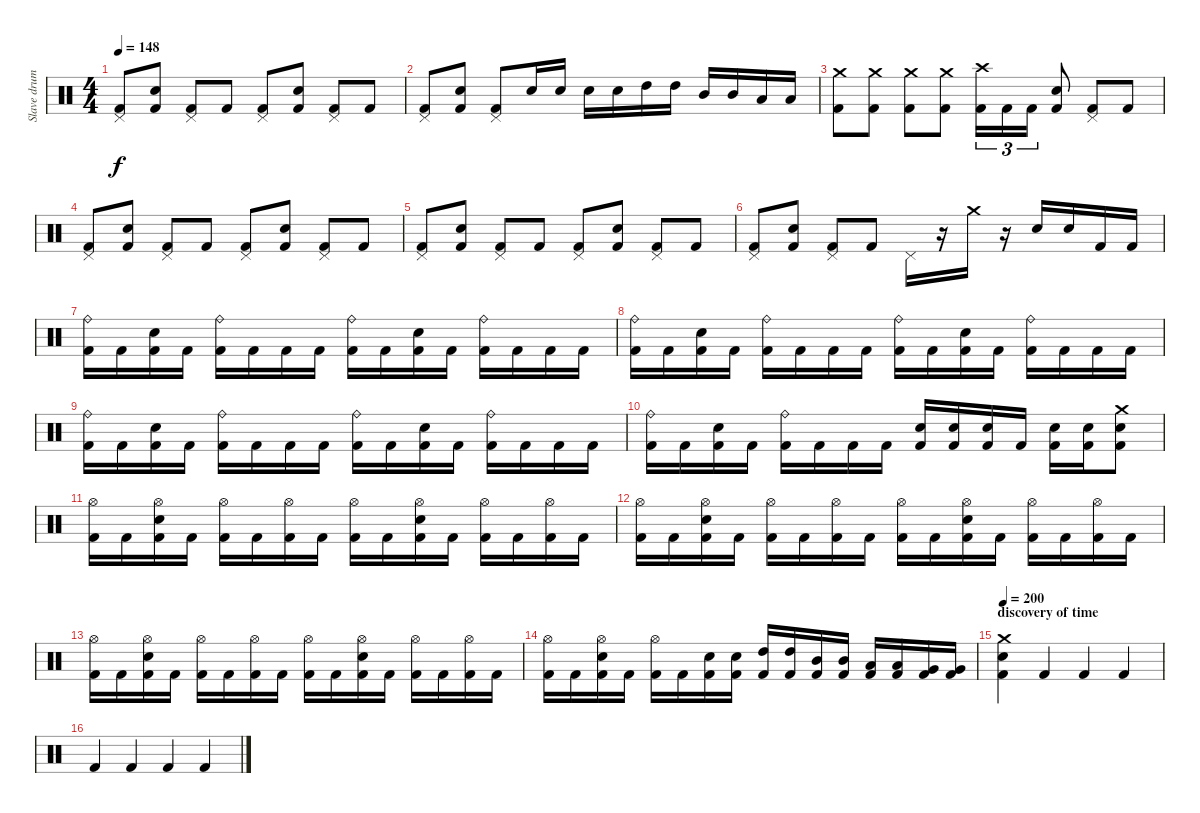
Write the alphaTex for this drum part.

\track ("Slave drum" "Slave drum") {instrument percussion}
\staff {score}
\articulation defaults
\ts (4 4)
\tempo 148
\clef neutral
\ks c
("Pedal Hi-Hat (hit)" "Kick (hit) 2").8{dy f} ("Electric Snare (hit)" "Kick (hit) 2").8 ("Pedal Hi-Hat (hit)" "Kick (hit) 2").8 "Kick (hit) 2".8 ("Pedal Hi-Hat (hit)" "Kick (hit) 2").8 ("Electric Snare (hit)" "Kick (hit) 2").8 ("Pedal Hi-Hat (hit)" "Kick (hit) 2").8 "Kick (hit) 2".8 |
("Pedal Hi-Hat (hit)" "Kick (hit) 2").8 ("Electric Snare (hit)" "Kick (hit) 2").8 ("Pedal Hi-Hat (hit)" "Kick (hit) 2").8 "Electric Snare (hit)".16 "Electric Snare (hit)".16 "Electric Snare (hit)".16 "Electric Snare (hit)".16 "High Tom (hit)".16 "High Tom (hit)".16 "Mid Tom (hit)".16 "Mid Tom (hit)".16 "Low Tom (hit)".16 "Low Tom (hit)".16 |
("Crash medium (hit)" "Kick (hit) 2").8 ("Crash medium (hit)" "Kick (hit) 2").8 ("Crash medium (hit)" "Kick (hit) 2").8 ("Crash medium (hit)" "Kick (hit) 2").8 ("Crash high (hit)" "Kick (hit) 2").16{tu (3 2)} "Kick (hit) 2".16{tu (3 2)} "Kick (hit) 2".16{tu (3 2)} ("Electric Snare (hit)" "Kick (hit) 2").8 ("Pedal Hi-Hat (hit)" "Kick (hit) 2").8 "Kick (hit) 2".8 |
("Pedal Hi-Hat (hit)" "Kick (hit) 2").8 ("Electric Snare (hit)" "Kick (hit) 2").8 ("Pedal Hi-Hat (hit)" "Kick (hit) 2").8 "Kick (hit) 2".8 ("Pedal Hi-Hat (hit)" "Kick (hit) 2").8 ("Electric Snare (hit)" "Kick (hit) 2").8 ("Pedal Hi-Hat (hit)" "Kick (hit) 2").8 "Kick (hit) 2".8 |
("Pedal Hi-Hat (hit)" "Kick (hit) 2").8 ("Electric Snare (hit)" "Kick (hit) 2").8 ("Pedal Hi-Hat (hit)" "Kick (hit) 2").8 "Kick (hit) 2".8 ("Pedal Hi-Hat (hit)" "Kick (hit) 2").8 ("Electric Snare (hit)" "Kick (hit) 2").8 ("Pedal Hi-Hat (hit)" "Kick (hit) 2").8 "Kick (hit) 2".8 |
("Pedal Hi-Hat (hit)" "Kick (hit) 2").8 ("Electric Snare (hit)" "Kick (hit) 2").8 ("Pedal Hi-Hat (hit)" "Kick (hit) 2").8 "Kick (hit) 2".8 "Pedal Hi-Hat (hit)".16 r.16 "Crash medium (hit)".16 r.16 "Electric Snare (hit)".16 "Electric Snare (hit)".16 "Kick (hit) 2".16 "Kick (hit) 2".16 |
("Ride (bell)" "Kick (hit) 2").16 "Kick (hit) 2".16 ("Electric Snare (hit)" "Kick (hit) 2").16 "Kick (hit) 2".16 ("Ride (bell)" "Kick (hit) 2").16 "Kick (hit) 2".16 "Kick (hit) 2".16 "Kick (hit) 2".16 ("Ride (bell)" "Kick (hit) 2").16 "Kick (hit) 2".16 ("Electric Snare (hit)" "Kick (hit) 2").16 "Kick (hit) 2".16 ("Ride (bell)" "Kick (hit) 2").16 "Kick (hit) 2".16 "Kick (hit) 2".16 "Kick (hit) 2".16 |
("Ride (bell)" "Kick (hit) 2").16 "Kick (hit) 2".16 ("Electric Snare (hit)" "Kick (hit) 2").16 "Kick (hit) 2".16 ("Ride (bell)" "Kick (hit) 2").16 "Kick (hit) 2".16 "Kick (hit) 2".16 "Kick (hit) 2".16 ("Ride (bell)" "Kick (hit) 2").16 "Kick (hit) 2".16 ("Electric Snare (hit)" "Kick (hit) 2").16 "Kick (hit) 2".16 ("Ride (bell)" "Kick (hit) 2").16 "Kick (hit) 2".16 "Kick (hit) 2".16 "Kick (hit) 2".16 |
("Ride (bell)" "Kick (hit) 2").16 "Kick (hit) 2".16 ("Electric Snare (hit)" "Kick (hit) 2").16 "Kick (hit) 2".16 ("Ride (bell)" "Kick (hit) 2").16 "Kick (hit) 2".16 "Kick (hit) 2".16 "Kick (hit) 2".16 ("Ride (bell)" "Kick (hit) 2").16 "Kick (hit) 2".16 ("Electric Snare (hit)" "Kick (hit) 2").16 "Kick (hit) 2".16 ("Ride (bell)" "Kick (hit) 2").16 "Kick (hit) 2".16 "Kick (hit) 2".16 "Kick (hit) 2".16 |
("Ride (bell)" "Kick (hit) 2").16 "Kick (hit) 2".16 ("Electric Snare (hit)" "Kick (hit) 2").16 "Kick (hit) 2".16 ("Ride (bell)" "Kick (hit) 2").16 "Kick (hit) 2".16 "Kick (hit) 2".16 "Kick (hit) 2".16 ("Electric Snare (hit)" "Kick (hit) 2").16 ("Electric Snare (hit)" "Kick (hit) 2").16 ("Electric Snare (hit)" "Kick (hit) 2").16 "Kick (hit) 2".16 ("Electric Snare (hit)" "Kick (hit) 2").16 ("Electric Snare (hit)" "Kick (hit) 2").16 ("Crash medium (hit)" "Electric Snare (hit)" "Kick (hit) 2").8 |
("Hi-Hat (open)" "Kick (hit) 2").16 "Kick (hit) 2".16 ("Hi-Hat (open)" "Electric Snare (hit)" "Kick (hit) 2").16 "Kick (hit) 2".16 ("Hi-Hat (open)" "Kick (hit) 2").16 "Kick (hit) 2".16 ("Hi-Hat (open)" "Kick (hit) 2").16 "Kick (hit) 2".16 ("Hi-Hat (open)" "Kick (hit) 2").16 "Kick (hit) 2".16 ("Hi-Hat (open)" "Electric Snare (hit)" "Kick (hit) 2").16 "Kick (hit) 2".16 ("Hi-Hat (open)" "Kick (hit) 2").16 "Kick (hit) 2".16 ("Hi-Hat (open)" "Kick (hit) 2").16 "Kick (hit) 2".16 |
("Hi-Hat (open)" "Kick (hit) 2").16 "Kick (hit) 2".16 ("Hi-Hat (open)" "Electric Snare (hit)" "Kick (hit) 2").16 "Kick (hit) 2".16 ("Hi-Hat (open)" "Kick (hit) 2").16 "Kick (hit) 2".16 ("Hi-Hat (open)" "Kick (hit) 2").16 "Kick (hit) 2".16 ("Hi-Hat (open)" "Kick (hit) 2").16 "Kick (hit) 2".16 ("Hi-Hat (open)" "Electric Snare (hit)" "Kick (hit) 2").16 "Kick (hit) 2".16 ("Hi-Hat (open)" "Kick (hit) 2").16 "Kick (hit) 2".16 ("Hi-Hat (open)" "Kick (hit) 2").16 "Kick (hit) 2".16 |
("Hi-Hat (open)" "Kick (hit) 2").16 "Kick (hit) 2".16 ("Hi-Hat (open)" "Electric Snare (hit)" "Kick (hit) 2").16 "Kick (hit) 2".16 ("Hi-Hat (open)" "Kick (hit) 2").16 "Kick (hit) 2".16 ("Hi-Hat (open)" "Kick (hit) 2").16 "Kick (hit) 2".16 ("Hi-Hat (open)" "Kick (hit) 2").16 "Kick (hit) 2".16 ("Hi-Hat (open)" "Electric Snare (hit)" "Kick (hit) 2").16 "Kick (hit) 2".16 ("Hi-Hat (open)" "Kick (hit) 2").16 "Kick (hit) 2".16 ("Hi-Hat (open)" "Kick (hit) 2").16 "Kick (hit) 2".16 |
("Hi-Hat (open)" "Kick (hit) 2").16 "Kick (hit) 2".16 ("Hi-Hat (open)" "Electric Snare (hit)" "Kick (hit) 2").16 "Kick (hit) 2".16 ("Hi-Hat (open)" "Kick (hit) 2").16 "Kick (hit) 2".16 ("Electric Snare (hit)" "Kick (hit) 2").16 ("Electric Snare (hit)" "Kick (hit) 2").16 ("High Tom (hit)" "Kick (hit) 2").16 ("High Tom (hit)" "Kick (hit) 2").16 ("Mid Tom (hit)" "Kick (hit) 2").16 ("Mid Tom (hit)" "Kick (hit) 2").16 ("Low Tom (hit)" "Kick (hit) 2").16 ("Low Tom (hit)" "Kick (hit) 2").16 ("Very Low Tom (hit)" "Kick (hit) 2").16 ("Very Low Tom (hit)" "Kick (hit) 2").16 |
\section ("" "discovery of time")
\tempo 200
("Crash medium (hit)" "Electric Snare (hit)" "Kick (hit) 2").4 "Kick (hit) 2".4 "Kick (hit) 2".4 "Kick (hit) 2".4 |
"Kick (hit) 2".4 "Kick (hit) 2".4 "Kick (hit) 2".4 "Kick (hit) 2".4
